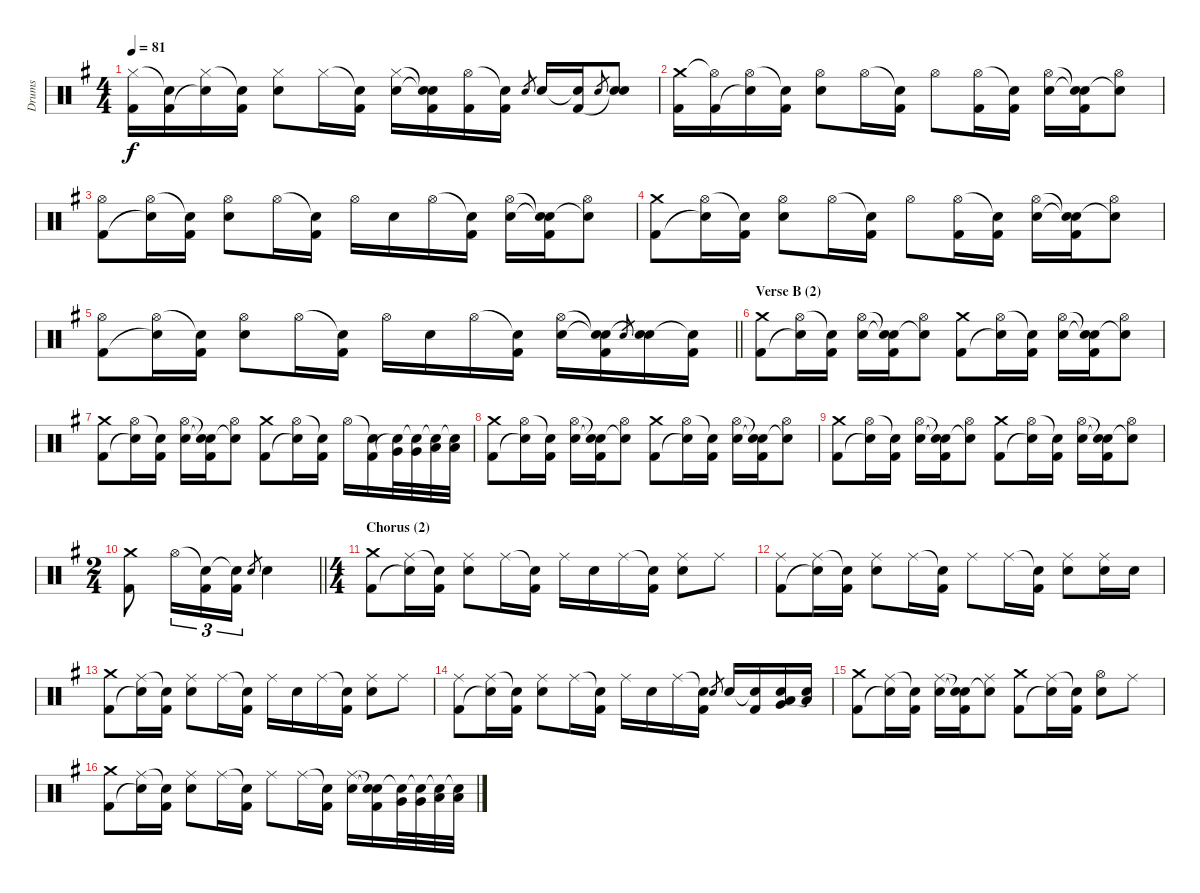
\track ("Drums" "Drums") {instrument percussion}
\staff {score}
\articulation defaults
\ts (4 4)
\tempo 81
\clef neutral
\ks g
("Hi-Hat (closed)" "Kick (hit) 2").16{dy f} ("Snare (hit)"{t} "Kick (hit) 2").16 ("Hi-Hat (closed)" "Snare (hit)"{t}).16 ("Snare (hit)"{t} "Kick (hit) 2").16 ("Hi-Hat (closed)" "Electric Snare (hit)").8 "Hi-Hat (closed)".16 ("Snare (hit)"{t} "Kick (hit) 2").16 ("Hi-Hat (closed)" "Electric Snare (hit)").16 ("Snare (hit)"{t} "Snare (hit)"{t} "Kick (hit) 2").16 ("Hi-Hat (open)" "Kick (hit) 2").16 ("Snare (hit)"{t} "Kick (hit) 2").16 "Electric Snare (hit)".8{gr} "Electric Snare (hit)".16 ("Snare (hit)"{t} "Kick (hit) 2").16 "Electric Snare (hit)".8{gr} ("Electric Snare (hit)" "Snare (hit)"{t}).8 |
("Crash medium (hit)" "Kick (hit) 2").16 ("Hi-Hat (open)"{t} "Kick (hit) 2").16 ("Hi-Hat (open)" "Snare (hit)"{t}).16 ("Snare (hit)"{t} "Kick (hit) 2").16 ("Hi-Hat (open)" "Electric Snare (hit)").8 "Hi-Hat (open)".16 ("Snare (hit)"{t} "Kick (hit) 2").16 "Hi-Hat (open)".8 ("Hi-Hat (open)" "Kick (hit) 2").16 ("Snare (hit)"{t} "Kick (hit) 2").16 ("Hi-Hat (open)" "Electric Snare (hit)").16 ("Snare (hit)"{t} "Snare (hit)"{t} "Kick (hit) 2").16 ("Hi-Hat (open)" "Snare (hit)"{t}).8 |
("Hi-Hat (open)" "Kick (hit) 2").8 ("Hi-Hat (open)" "Snare (hit)"{t}).16 ("Snare (hit)"{t} "Kick (hit) 2").16 ("Hi-Hat (open)" "Electric Snare (hit)").8 "Hi-Hat (open)".16 ("Snare (hit)"{t} "Kick (hit) 2").16 "Hi-Hat (open)".16 "Electric Snare (hit)".16 "Hi-Hat (open)".16 ("Snare (hit)"{t} "Kick (hit) 2").16 ("Hi-Hat (open)" "Electric Snare (hit)").16 ("Snare (hit)"{t} "Snare (hit)"{t} "Kick (hit) 2").16 ("Hi-Hat (open)" "Snare (hit)"{t}).8 |
("Crash medium (hit)" "Kick (hit) 2").8 ("Hi-Hat (open)" "Snare (hit)"{t}).16 ("Snare (hit)"{t} "Kick (hit) 2").16 ("Hi-Hat (open)" "Electric Snare (hit)").8 "Hi-Hat (open)".16 ("Snare (hit)"{t} "Kick (hit) 2").16 "Hi-Hat (open)".8 ("Hi-Hat (open)" "Kick (hit) 2").16 ("Snare (hit)"{t} "Kick (hit) 2").16 ("Hi-Hat (open)" "Electric Snare (hit)").16 ("Snare (hit)"{t} "Snare (hit)"{t} "Kick (hit) 2").16 ("Hi-Hat (open)" "Snare (hit)"{t}).8 |
\barLineRight lightlight
("Hi-Hat (open)" "Kick (hit) 2").8 ("Hi-Hat (open)" "Snare (hit)"{t}).16 ("Snare (hit)"{t} "Kick (hit) 2").16 ("Hi-Hat (open)" "Electric Snare (hit)").8 "Hi-Hat (open)".16 ("Snare (hit)"{t} "Kick (hit) 2").16 "Hi-Hat (open)".16 "Electric Snare (hit)".16 "Hi-Hat (open)".16 ("Snare (hit)"{t} "Kick (hit) 2").16 ("Hi-Hat (open)" "Electric Snare (hit)").16 ("Snare (hit)"{t} "Snare (hit)"{t} "Kick (hit) 2").16 "Electric Snare (hit)".8{gr} ("Electric Snare (hit)" "Snare (hit)"{t}).16 ("Snare (hit)"{t} "Kick (hit) 2").16 |
\section ("" "Verse B (2)")
("Crash medium (hit)" "Kick (hit) 2").8 ("Hi-Hat (open)" "Snare (hit)"{t}).16 ("Snare (hit)"{t} "Kick (hit) 2").16 ("Hi-Hat (open)" "Electric Snare (hit)").16 ("Snare (hit)"{t} "Snare (hit)"{t} "Kick (hit) 2").16 ("Hi-Hat (open)" "Snare (hit)"{t}).8 ("Crash medium (hit)" "Kick (hit) 2").8 ("Hi-Hat (open)" "Snare (hit)"{t}).16 ("Snare (hit)"{t} "Kick (hit) 2").16 ("Hi-Hat (open)" "Electric Snare (hit)").16 ("Snare (hit)"{t} "Snare (hit)"{t} "Kick (hit) 2").16 ("Hi-Hat (open)" "Snare (hit)"{t}).8 |
("Crash medium (hit)" "Kick (hit) 2").8 ("Hi-Hat (open)" "Snare (hit)"{t}).16 ("Snare (hit)"{t} "Kick (hit) 2").16 ("Hi-Hat (open)" "Electric Snare (hit)").16 ("Snare (hit)"{t} "Snare (hit)"{t} "Kick (hit) 2").16 ("Hi-Hat (open)" "Snare (hit)"{t}).8 ("Crash medium (hit)" "Kick (hit) 2").8 ("Hi-Hat (open)" "Snare (hit)"{t}).16 ("Snare (hit)"{t} "Kick (hit) 2").16 "Hi-Hat (open)".16 ("Snare (hit)"{t} "Kick (hit) 2").16 ("Very Low Tom (hit)" "Snare (hit)"{t}).32 ("Very Low Tom (hit)" "Snare (hit)"{t}).32 ("Low Floor Tom (hit)" "Snare (hit)"{t}).32 ("Low Floor Tom (hit)" "Snare (hit)"{t}).32 |
("Crash medium (hit)" "Kick (hit) 2").8 ("Hi-Hat (open)" "Snare (hit)"{t}).16 ("Snare (hit)"{t} "Kick (hit) 2").16 ("Hi-Hat (open)" "Electric Snare (hit)").16 ("Snare (hit)"{t} "Snare (hit)"{t} "Kick (hit) 2").16 ("Hi-Hat (open)" "Snare (hit)"{t}).8 ("Crash medium (hit)" "Kick (hit) 2").8 ("Hi-Hat (open)" "Snare (hit)"{t}).16 ("Snare (hit)"{t} "Kick (hit) 2").16 ("Hi-Hat (open)" "Electric Snare (hit)").16 ("Snare (hit)"{t} "Snare (hit)"{t} "Kick (hit) 2").16 ("Hi-Hat (open)" "Snare (hit)"{t}).8 |
("Crash medium (hit)" "Kick (hit) 2").8 ("Hi-Hat (open)" "Snare (hit)"{t}).16 ("Snare (hit)"{t} "Kick (hit) 2").16 ("Hi-Hat (open)" "Electric Snare (hit)").16 ("Snare (hit)"{t} "Snare (hit)"{t} "Kick (hit) 2").16 ("Hi-Hat (open)" "Snare (hit)"{t}).8 ("Crash medium (hit)" "Kick (hit) 2").8 ("Hi-Hat (open)" "Snare (hit)"{t}).16 ("Snare (hit)"{t} "Kick (hit) 2").16 ("Hi-Hat (open)" "Electric Snare (hit)").16 ("Snare (hit)"{t} "Snare (hit)"{t} "Kick (hit) 2").16 ("Hi-Hat (open)" "Snare (hit)"{t}).8 |
\ts (2 4)
\barLineRight lightlight
("Crash medium (hit)" "Kick (hit) 2").8 "Hi-Hat (open)".16{tu (3 2)} ("Snare (hit)"{t} "Kick (hit) 2").16{tu (3 2)} ("Snare (hit)"{t} "Kick (hit) 2").16{tu (3 2)} "Electric Snare (hit)".8{gr} "Electric Snare (hit)".4 |
\ts (4 4)
\section ("" "Chorus (2)")
("Crash medium (hit)" "Kick (hit) 2").8 ("Ride (middle)" "Snare (hit)"{t}).16 ("Snare (hit)"{t} "Kick (hit) 2").16 ("Ride (middle)" "Electric Snare (hit)").8 "Ride (middle)".16 ("Snare (hit)"{t} "Kick (hit) 2").16 "Ride (middle)".16 "Electric Snare (hit)".16 "Ride (middle)".16 ("Snare (hit)"{t} "Kick (hit) 2").16 ("Ride (middle)" "Electric Snare (hit)").8 "Ride (middle)".8 |
("Ride (middle)" "Kick (hit) 2").8 ("Ride (middle)" "Snare (hit)"{t}).16 ("Snare (hit)"{t} "Kick (hit) 2").16 ("Ride (middle)" "Electric Snare (hit)").8 "Ride (middle)".16 ("Snare (hit)"{t} "Kick (hit) 2").16 "Ride (middle)".8 "Ride (middle)".16 ("Snare (hit)"{t} "Kick (hit) 2").16 ("Ride (middle)" "Electric Snare (hit)").8 ("Ride (middle)" "Electric Snare (hit)").16 "Electric Snare (hit)".16 |
("Crash medium (hit)" "Kick (hit) 2").8 ("Ride (middle)" "Snare (hit)"{t}).16 ("Snare (hit)"{t} "Kick (hit) 2").16 ("Ride (middle)" "Electric Snare (hit)").8 "Ride (middle)".16 ("Snare (hit)"{t} "Kick (hit) 2").16 "Ride (middle)".16 "Electric Snare (hit)".16 "Ride (middle)".16 ("Snare (hit)"{t} "Kick (hit) 2").16 ("Ride (middle)" "Electric Snare (hit)").8 "Ride (middle)".8 |
("Ride (middle)" "Kick (hit) 2").8 ("Ride (middle)" "Snare (hit)"{t}).16 ("Snare (hit)"{t} "Kick (hit) 2").16 ("Ride (middle)" "Electric Snare (hit)").8 "Ride (middle)".16 ("Snare (hit)"{t} "Kick (hit) 2").16 "Ride (middle)".16 "Electric Snare (hit)".16 "Ride (middle)".16 ("Snare (hit)"{t} "Kick (hit) 2").16 "Electric Snare (hit)".8{gr} "Electric Snare (hit)".16 ("Snare (hit)"{t} "Kick (hit) 2").16 ("Very Low Tom (hit)" "Low Floor Tom (hit)" "Snare (hit)").16 ("Low Floor Tom (hit)" "Snare (hit)"{t}).16 |
("Crash medium (hit)" "Kick (hit) 2").8 ("Ride (middle)" "Snare (hit)"{t}).16 ("Snare (hit)"{t} "Kick (hit) 2").16 ("Ride (middle)" "Electric Snare (hit)").16 ("Snare (hit)"{t} "Snare (hit)"{t} "Kick (hit) 2").16 ("Ride (middle)" "Snare (hit)"{t}).8 ("Crash medium (hit)" "Kick (hit) 2").8 ("Ride (middle)" "Snare (hit)"{t}).16 ("Snare (hit)"{t} "Kick (hit) 2").16 ("Hi-Hat (open)" "Electric Snare (hit)").8 "Ride (middle)".8 |
("Crash medium (hit)" "Kick (hit) 2").8 ("Ride (middle)" "Snare (hit)"{t}).16 ("Snare (hit)"{t} "Kick (hit) 2").16 ("Ride (middle)" "Electric Snare (hit)").8 "Ride (middle)".16 ("Snare (hit)"{t} "Kick (hit) 2").16 "Ride (middle)".8 "Ride (middle)".16 ("Snare (hit)"{t} "Kick (hit) 2").16 ("Ride (middle)" "Electric Snare (hit)").16 ("Snare (hit)"{t} "Snare (hit)"{t} "Kick (hit) 2").16 ("Very Low Tom (hit)" "Snare (hit)"{t}).32 ("Very Low Tom (hit)" "Snare (hit)"{t}).32 ("Low Floor Tom (hit)" "Snare (hit)"{t}).32 ("Low Floor Tom (hit)" "Snare (hit)"{t}).32
